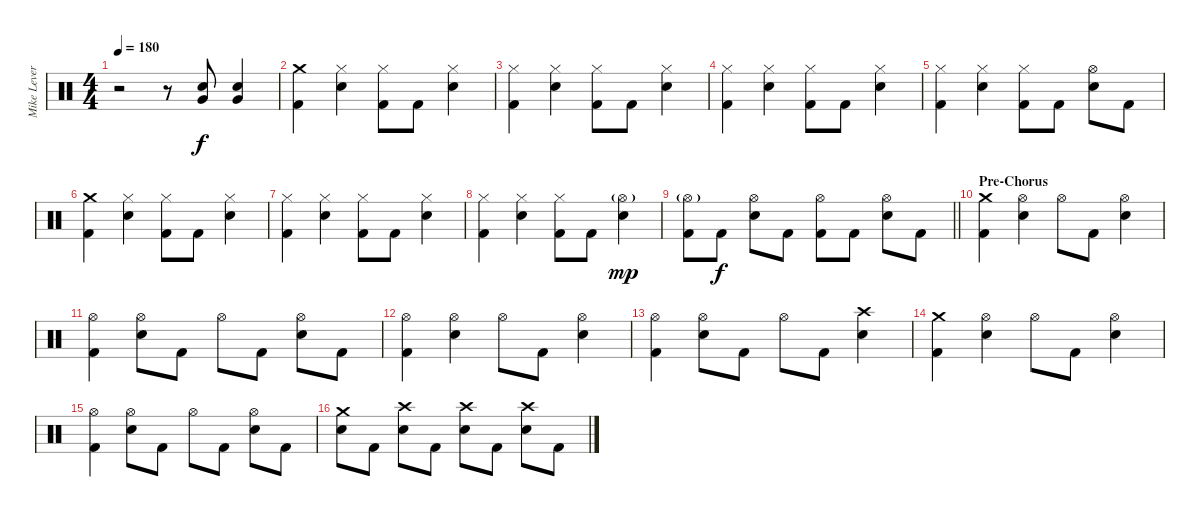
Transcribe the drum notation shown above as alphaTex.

\track ("Mike Leverence - Drums" "Mike Lever") {instrument percussion}
\staff {score}
\articulation defaults
\ts (4 4)
\tempo 180
\clef neutral
\ks c
r.2{dy f} r.8 ("Electric Snare (hit)" "Very Low Tom (hit)").8 ("Electric Snare (hit)" "Very Low Tom (hit)").4 |
("Crash medium (hit)" "Kick (hit) 2").4 ("Hi-Hat (closed)" "Electric Snare (hit)").4 ("Hi-Hat (closed)" "Kick (hit) 2").8 "Kick (hit) 2".8 ("Hi-Hat (closed)" "Electric Snare (hit)").4 |
("Hi-Hat (closed)" "Kick (hit) 2").4 ("Hi-Hat (closed)" "Electric Snare (hit)").4 ("Hi-Hat (closed)" "Kick (hit) 2").8 "Kick (hit) 2".8 ("Hi-Hat (closed)" "Electric Snare (hit)").4 |
("Hi-Hat (closed)" "Kick (hit) 2").4 ("Hi-Hat (closed)" "Electric Snare (hit)").4 ("Hi-Hat (closed)" "Kick (hit) 2").8 "Kick (hit) 2".8 ("Hi-Hat (closed)" "Electric Snare (hit)").4 |
("Hi-Hat (closed)" "Kick (hit) 2").4 ("Hi-Hat (closed)" "Electric Snare (hit)").4 ("Hi-Hat (closed)" "Kick (hit) 2").8 "Kick (hit) 2".8 ("Hi-Hat (open)" "Electric Snare (hit)").8 "Kick (hit) 2".8 |
("Crash medium (hit)" "Kick (hit) 2").4 ("Hi-Hat (closed)" "Electric Snare (hit)").4 ("Hi-Hat (closed)" "Kick (hit) 2").8 "Kick (hit) 2".8 ("Hi-Hat (closed)" "Electric Snare (hit)").4 |
("Hi-Hat (closed)" "Kick (hit) 2").4 ("Hi-Hat (closed)" "Electric Snare (hit)").4 ("Hi-Hat (closed)" "Kick (hit) 2").8 "Kick (hit) 2".8 ("Hi-Hat (closed)" "Electric Snare (hit)").4 |
("Hi-Hat (closed)" "Kick (hit) 2").4 ("Hi-Hat (closed)" "Electric Snare (hit)").4 ("Hi-Hat (closed)" "Kick (hit) 2").8 "Kick (hit) 2".8 ("Hi-Hat (open)"{g} "Electric Snare (hit)").4{dy mp} |
\barLineRight lightlight
("Hi-Hat (open)"{g} "Kick (hit) 2").8 "Kick (hit) 2".8{dy f} ("Hi-Hat (open)" "Electric Snare (hit)").8 "Kick (hit) 2".8 ("Hi-Hat (open)" "Kick (hit) 2").8 "Kick (hit) 2".8 ("Hi-Hat (open)" "Electric Snare (hit)").8 "Kick (hit) 2".8 |
\section ("" "Pre-Chorus")
("Crash medium (hit)" "Kick (hit) 2").4 ("Hi-Hat (open)" "Electric Snare (hit)").4 "Hi-Hat (open)".8 "Kick (hit) 2".8 ("Hi-Hat (open)" "Electric Snare (hit)").4 |
("Hi-Hat (open)" "Kick (hit) 2").4 ("Hi-Hat (open)" "Electric Snare (hit)").8 "Kick (hit) 2".8 "Hi-Hat (open)".8 "Kick (hit) 2".8 ("Hi-Hat (open)" "Electric Snare (hit)").8 "Kick (hit) 2".8 |
("Hi-Hat (open)" "Kick (hit) 2").4 ("Hi-Hat (open)" "Electric Snare (hit)").4 "Hi-Hat (open)".8 "Kick (hit) 2".8 ("Hi-Hat (open)" "Electric Snare (hit)").4 |
("Hi-Hat (open)" "Kick (hit) 2").4 ("Hi-Hat (open)" "Electric Snare (hit)").8 "Kick (hit) 2".8 "Hi-Hat (open)".8 "Kick (hit) 2".8 ("Crash high (hit)" "Electric Snare (hit)").4 |
("Crash medium (hit)" "Kick (hit) 2").4 ("Hi-Hat (open)" "Electric Snare (hit)").4 "Hi-Hat (open)".8 "Kick (hit) 2".8 ("Hi-Hat (open)" "Electric Snare (hit)").4 |
("Hi-Hat (open)" "Kick (hit) 2").4 ("Hi-Hat (open)" "Electric Snare (hit)").8 "Kick (hit) 2".8 "Hi-Hat (open)".8 "Kick (hit) 2".8 ("Hi-Hat (open)" "Electric Snare (hit)").8 "Kick (hit) 2".8 |
("Crash medium (hit)" "Electric Snare (hit)").8 "Kick (hit) 2".8 ("Crash high (hit)" "Electric Snare (hit)").8 "Kick (hit) 2".8 ("Crash high (hit)" "Electric Snare (hit)").8 "Kick (hit) 2".8 ("Crash high (hit)" "Electric Snare (hit)").8 "Kick (hit) 2".8
